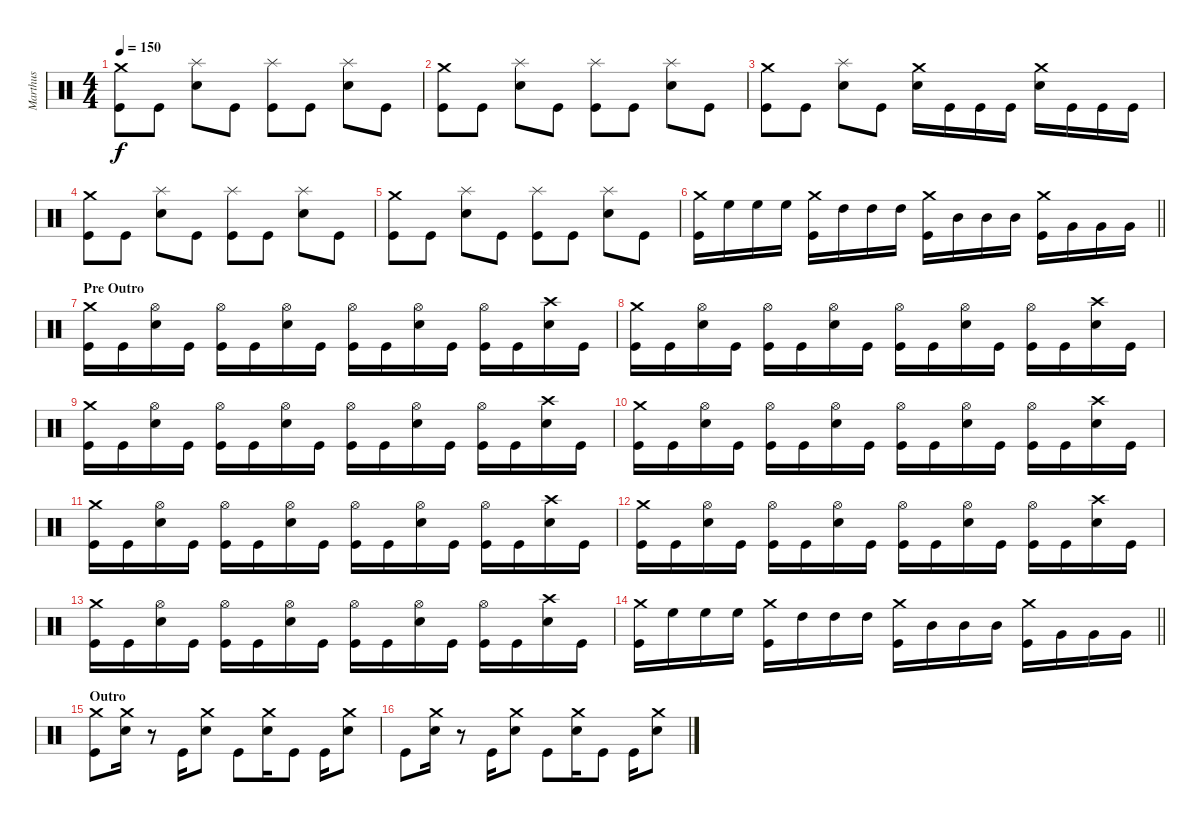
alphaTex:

\track ("Marthus" "Marthus") {instrument percussion}
\staff {score}
\articulation defaults
\ts (4 4)
\tempo 150
\clef neutral
\ks c
("Crash medium (hit)" "Kick (hit)").8{dy f} "Kick (hit)".8 ("Splash (hit)" "Snare (hit) 2").8 "Kick (hit)".8 ("Splash (hit)" "Kick (hit)").8 "Kick (hit)".8 ("Splash (hit)" "Snare (hit) 2").8 "Kick (hit)".8 |
("Crash medium (hit)" "Kick (hit)").8 "Kick (hit)".8 ("Splash (hit)" "Snare (hit) 2").8 "Kick (hit)".8 ("Splash (hit)" "Kick (hit)").8 "Kick (hit)".8 ("Splash (hit)" "Snare (hit) 2").8 "Kick (hit)".8 |
("Crash medium (hit)" "Kick (hit)").8 "Kick (hit)".8 ("Splash (hit)" "Snare (hit) 2").8 "Kick (hit)".8 ("Crash medium (hit)" "Snare (hit) 2").16 "Kick (hit)".16 "Kick (hit)".16 "Kick (hit)".16 ("Crash medium (hit)" "Snare (hit) 2").16 "Kick (hit)".16 "Kick (hit)".16 "Kick (hit)".16 |
("Crash medium (hit)" "Kick (hit)").8 "Kick (hit)".8 ("Splash (hit)" "Snare (hit) 2").8 "Kick (hit)".8 ("Splash (hit)" "Kick (hit)").8 "Kick (hit)".8 ("Splash (hit)" "Snare (hit) 2").8 "Kick (hit)".8 |
("Crash medium (hit)" "Kick (hit)").8 "Kick (hit)".8 ("Splash (hit)" "Snare (hit) 2").8 "Kick (hit)".8 ("Splash (hit)" "Kick (hit)").8 "Kick (hit)".8 ("Splash (hit)" "Snare (hit) 2").8 "Kick (hit)".8 |
\barLineRight lightlight
("Crash medium (hit)" "Kick (hit)").16 "High Floor Tom (hit)".16 "High Floor Tom (hit)".16 "High Floor Tom (hit)".16 ("Crash medium (hit)" "Kick (hit)").16 "High Tom (hit)".16 "High Tom (hit)".16 "High Tom (hit)".16 ("Crash medium (hit)" "Kick (hit)").16 "Mid Tom (hit)".16 "Mid Tom (hit)".16 "Mid Tom (hit)".16 ("Crash medium (hit)" "Kick (hit)").16 "Very Low Tom (hit)".16 "Very Low Tom (hit)".16 "Very Low Tom (hit)".16 |
\section ("" "Pre Outro")
("Crash medium (hit)" "Kick (hit)").16 "Kick (hit)".16 ("Hi-Hat (open)" "Snare (hit) 2").16 "Kick (hit)".16 ("Hi-Hat (open)" "Kick (hit)").16 "Kick (hit)".16 ("Hi-Hat (open)" "Snare (hit) 2").16 "Kick (hit)".16 ("Hi-Hat (open)" "Kick (hit)").16 "Kick (hit)".16 ("Hi-Hat (open)" "Snare (hit) 2").16 "Kick (hit)".16 ("Hi-Hat (open)" "Kick (hit)").16 "Kick (hit)".16 ("Crash high (hit)" "Snare (hit) 2").16 "Kick (hit)".16 |
("Crash medium (hit)" "Kick (hit)").16 "Kick (hit)".16 ("Hi-Hat (open)" "Snare (hit) 2").16 "Kick (hit)".16 ("Hi-Hat (open)" "Kick (hit)").16 "Kick (hit)".16 ("Hi-Hat (open)" "Snare (hit) 2").16 "Kick (hit)".16 ("Hi-Hat (open)" "Kick (hit)").16 "Kick (hit)".16 ("Hi-Hat (open)" "Snare (hit) 2").16 "Kick (hit)".16 ("Hi-Hat (open)" "Kick (hit)").16 "Kick (hit)".16 ("Crash high (hit)" "Snare (hit) 2").16 "Kick (hit)".16 |
("Crash medium (hit)" "Kick (hit)").16 "Kick (hit)".16 ("Hi-Hat (open)" "Snare (hit) 2").16 "Kick (hit)".16 ("Hi-Hat (open)" "Kick (hit)").16 "Kick (hit)".16 ("Hi-Hat (open)" "Snare (hit) 2").16 "Kick (hit)".16 ("Hi-Hat (open)" "Kick (hit)").16 "Kick (hit)".16 ("Hi-Hat (open)" "Snare (hit) 2").16 "Kick (hit)".16 ("Hi-Hat (open)" "Kick (hit)").16 "Kick (hit)".16 ("Crash high (hit)" "Snare (hit) 2").16 "Kick (hit)".16 |
("Crash medium (hit)" "Kick (hit)").16 "Kick (hit)".16 ("Hi-Hat (open)" "Snare (hit) 2").16 "Kick (hit)".16 ("Hi-Hat (open)" "Kick (hit)").16 "Kick (hit)".16 ("Hi-Hat (open)" "Snare (hit) 2").16 "Kick (hit)".16 ("Hi-Hat (open)" "Kick (hit)").16 "Kick (hit)".16 ("Hi-Hat (open)" "Snare (hit) 2").16 "Kick (hit)".16 ("Hi-Hat (open)" "Kick (hit)").16 "Kick (hit)".16 ("Crash high (hit)" "Snare (hit) 2").16 "Kick (hit)".16 |
("Crash medium (hit)" "Kick (hit)").16 "Kick (hit)".16 ("Hi-Hat (open)" "Snare (hit) 2").16 "Kick (hit)".16 ("Hi-Hat (open)" "Kick (hit)").16 "Kick (hit)".16 ("Hi-Hat (open)" "Snare (hit) 2").16 "Kick (hit)".16 ("Hi-Hat (open)" "Kick (hit)").16 "Kick (hit)".16 ("Hi-Hat (open)" "Snare (hit) 2").16 "Kick (hit)".16 ("Hi-Hat (open)" "Kick (hit)").16 "Kick (hit)".16 ("Crash high (hit)" "Snare (hit) 2").16 "Kick (hit)".16 |
("Crash medium (hit)" "Kick (hit)").16 "Kick (hit)".16 ("Hi-Hat (open)" "Snare (hit) 2").16 "Kick (hit)".16 ("Hi-Hat (open)" "Kick (hit)").16 "Kick (hit)".16 ("Hi-Hat (open)" "Snare (hit) 2").16 "Kick (hit)".16 ("Hi-Hat (open)" "Kick (hit)").16 "Kick (hit)".16 ("Hi-Hat (open)" "Snare (hit) 2").16 "Kick (hit)".16 ("Hi-Hat (open)" "Kick (hit)").16 "Kick (hit)".16 ("Crash high (hit)" "Snare (hit) 2").16 "Kick (hit)".16 |
("Crash medium (hit)" "Kick (hit)").16 "Kick (hit)".16 ("Hi-Hat (open)" "Snare (hit) 2").16 "Kick (hit)".16 ("Hi-Hat (open)" "Kick (hit)").16 "Kick (hit)".16 ("Hi-Hat (open)" "Snare (hit) 2").16 "Kick (hit)".16 ("Hi-Hat (open)" "Kick (hit)").16 "Kick (hit)".16 ("Hi-Hat (open)" "Snare (hit) 2").16 "Kick (hit)".16 ("Hi-Hat (open)" "Kick (hit)").16 "Kick (hit)".16 ("Crash high (hit)" "Snare (hit) 2").16 "Kick (hit)".16 |
\barLineRight lightlight
("Crash medium (hit)" "Kick (hit)").16 "High Floor Tom (hit)".16 "High Floor Tom (hit)".16 "High Floor Tom (hit)".16 ("Crash medium (hit)" "Kick (hit)").16 "High Tom (hit)".16 "High Tom (hit)".16 "High Tom (hit)".16 ("Crash medium (hit)" "Kick (hit)").16 "Mid Tom (hit)".16 "Mid Tom (hit)".16 "Mid Tom (hit)".16 ("Crash medium (hit)" "Kick (hit)").16 "Very Low Tom (hit)".16 "Very Low Tom (hit)".16 "Very Low Tom (hit)".16 |
\section ("" "Outro")
("Crash medium (hit)" "Kick (hit)").8 ("Crash medium (hit)" "Snare (hit) 2").16 r.8 "Kick (hit)".16 ("Crash medium (hit)" "Snare (hit) 2").8 "Kick (hit)".8 ("Crash medium (hit)" "Snare (hit) 2").16 "Kick (hit)".8 "Kick (hit)".16 ("Crash medium (hit)" "Snare (hit) 2").8 |
"Kick (hit)".8 ("Crash medium (hit)" "Snare (hit) 2").16 r.8 "Kick (hit)".16 ("Crash medium (hit)" "Snare (hit) 2").8 "Kick (hit)".8 ("Crash medium (hit)" "Snare (hit) 2").16 "Kick (hit)".8 "Kick (hit)".16 ("Crash medium (hit)" "Snare (hit) 2").8
